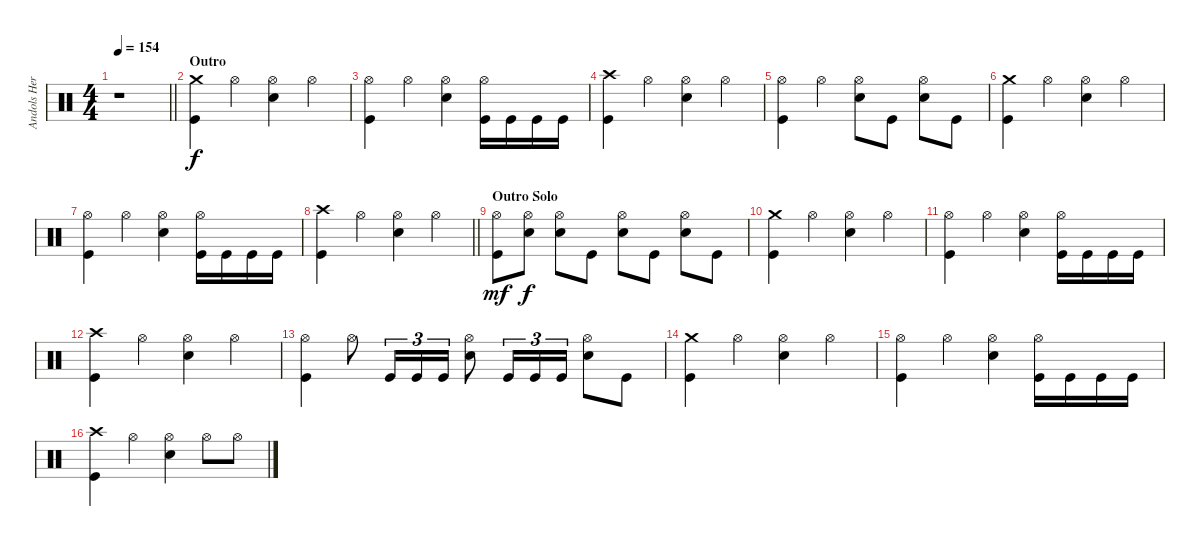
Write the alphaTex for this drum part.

\track ("Andols Herrick" "Andols Her") {instrument percussion}
\staff
\articulation defaults
\ts (4 4)
\tempo 154
\clef neutral
\barLineRight lightlight
\ks c
r.1{dy f} |
\section ("" "Outro")
("Crash medium (hit)" "Kick (hit)").4 "Hi-Hat (open)".4 ("Hi-Hat (open)" "Electric Snare (hit)").4 "Hi-Hat (open)".4 |
("Hi-Hat (open)" "Kick (hit)").4 "Hi-Hat (open)".4 ("Hi-Hat (open)" "Electric Snare (hit)").4 ("Hi-Hat (open)" "Kick (hit)").16 "Kick (hit)".16 "Kick (hit)".16 "Kick (hit)".16 |
("Crash high (hit)" "Kick (hit)").4 "Hi-Hat (open)".4 ("Hi-Hat (open)" "Electric Snare (hit)").4 "Hi-Hat (open)".4 |
("Hi-Hat (open)" "Kick (hit)").4 "Hi-Hat (open)".4 ("Hi-Hat (open)" "Electric Snare (hit)").8 "Kick (hit)".8 ("Hi-Hat (open)" "Electric Snare (hit)").8 "Kick (hit)".8 |
("Crash medium (hit)" "Kick (hit)").4 "Hi-Hat (open)".4 ("Hi-Hat (open)" "Electric Snare (hit)").4 "Hi-Hat (open)".4 |
("Hi-Hat (open)" "Kick (hit)").4 "Hi-Hat (open)".4 ("Hi-Hat (open)" "Electric Snare (hit)").4 ("Hi-Hat (open)" "Kick (hit)").16 "Kick (hit)".16 "Kick (hit)".16 "Kick (hit)".16 |
\barLineRight lightlight
("Crash high (hit)" "Kick (hit)").4 "Hi-Hat (open)".4 ("Hi-Hat (open)" "Electric Snare (hit)").4 "Hi-Hat (open)".4 |
\section ("" "Outro Solo")
("Hi-Hat (open)" "Kick (hit)").8{dy mf} ("Hi-Hat (open)" "Electric Snare (hit)").8{dy f} ("Hi-Hat (open)" "Electric Snare (hit)").8 "Kick (hit)".8 ("Hi-Hat (open)" "Electric Snare (hit)").8 "Kick (hit)".8 ("Hi-Hat (open)" "Electric Snare (hit)").8 "Kick (hit)".8 |
("Crash medium (hit)" "Kick (hit)").4 "Hi-Hat (open)".4 ("Hi-Hat (open)" "Electric Snare (hit)").4 "Hi-Hat (open)".4 |
("Hi-Hat (open)" "Kick (hit)").4 "Hi-Hat (open)".4 ("Hi-Hat (open)" "Electric Snare (hit)").4 ("Hi-Hat (open)" "Kick (hit)").16 "Kick (hit)".16 "Kick (hit)".16 "Kick (hit)".16 |
("Crash high (hit)" "Kick (hit)").4 "Hi-Hat (open)".4 ("Hi-Hat (open)" "Electric Snare (hit)").4 "Hi-Hat (open)".4 |
("Hi-Hat (open)" "Kick (hit)").4 "Hi-Hat (open)".8 "Kick (hit)".16{tu (3 2)} "Kick (hit)".16{tu (3 2)} "Kick (hit)".16{tu (3 2)} ("Hi-Hat (open)" "Electric Snare (hit)").8 "Kick (hit)".16{tu (3 2)} "Kick (hit)".16{tu (3 2)} "Kick (hit)".16{tu (3 2)} ("Hi-Hat (open)" "Electric Snare (hit)").8 "Kick (hit)".8 |
("Crash medium (hit)" "Kick (hit)").4 "Hi-Hat (open)".4 ("Hi-Hat (open)" "Electric Snare (hit)").4 "Hi-Hat (open)".4 |
("Hi-Hat (open)" "Kick (hit)").4 "Hi-Hat (open)".4 ("Hi-Hat (open)" "Electric Snare (hit)").4 ("Hi-Hat (open)" "Kick (hit)").16 "Kick (hit)".16 "Kick (hit)".16 "Kick (hit)".16 |
("Crash high (hit)" "Kick (hit)").4 "Hi-Hat (open)".4 ("Hi-Hat (open)" "Electric Snare (hit)").4 "Hi-Hat (open)".8 "Hi-Hat (open)".8
